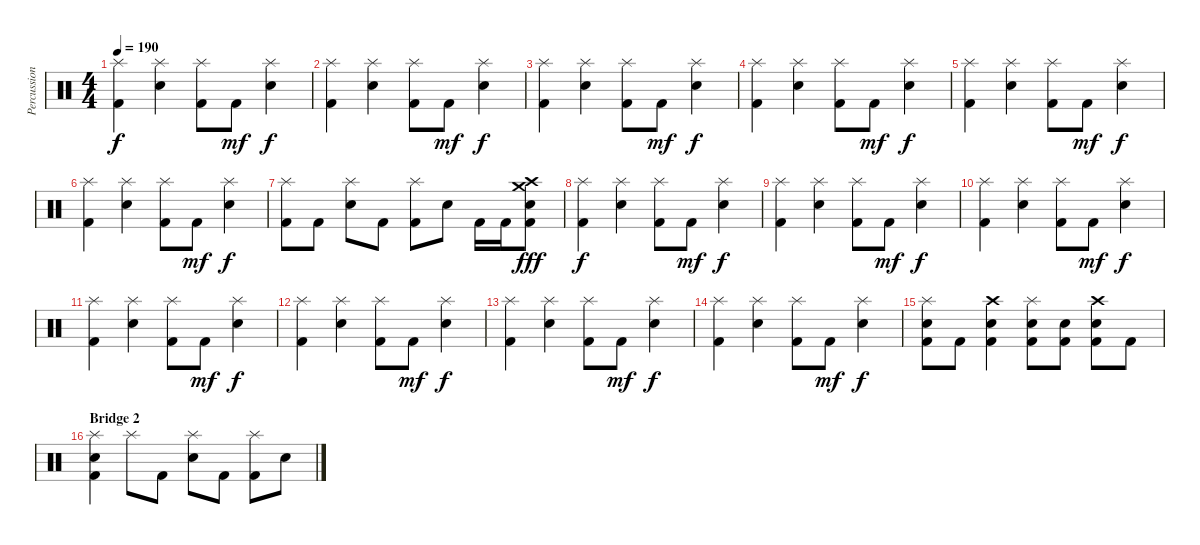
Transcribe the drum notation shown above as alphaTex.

\track ("Percussion" "Percussion") {instrument percussion}
\staff {score}
\articulation defaults
\ts (4 4)
\tempo 190
\clef neutral
\ks c
("Splash (hit)" "Kick (hit) 2").4{dy f} ("Splash (hit)" "Electric Snare (hit)").4 ("Splash (hit)" "Kick (hit) 2").8 "Kick (hit) 2".8{dy mf} ("Splash (hit)" "Electric Snare (hit)").4{dy f} |
("Splash (hit)" "Kick (hit) 2").4 ("Splash (hit)" "Electric Snare (hit)").4 ("Splash (hit)" "Kick (hit) 2").8 "Kick (hit) 2".8{dy mf} ("Splash (hit)" "Electric Snare (hit)").4{dy f} |
("Splash (hit)" "Kick (hit) 2").4 ("Splash (hit)" "Electric Snare (hit)").4 ("Splash (hit)" "Kick (hit) 2").8 "Kick (hit) 2".8{dy mf} ("Splash (hit)" "Electric Snare (hit)").4{dy f} |
("Splash (hit)" "Kick (hit) 2").4 ("Splash (hit)" "Electric Snare (hit)").4 ("Splash (hit)" "Kick (hit) 2").8 "Kick (hit) 2".8{dy mf} ("Splash (hit)" "Electric Snare (hit)").4{dy f} |
("Splash (hit)" "Kick (hit) 2").4 ("Splash (hit)" "Electric Snare (hit)").4 ("Splash (hit)" "Kick (hit) 2").8 "Kick (hit) 2".8{dy mf} ("Splash (hit)" "Electric Snare (hit)").4{dy f} |
("Splash (hit)" "Kick (hit) 2").4 ("Splash (hit)" "Electric Snare (hit)").4 ("Splash (hit)" "Kick (hit) 2").8 "Kick (hit) 2".8{dy mf} ("Splash (hit)" "Electric Snare (hit)").4{dy f} |
("Splash (hit)" "Kick (hit) 2").8 "Kick (hit) 2".8 ("Splash (hit)" "Electric Snare (hit)").8 "Kick (hit) 2".8 ("Splash (hit)" "Kick (hit) 2").8 "Electric Snare (hit)".8 "Kick (hit) 2".16 "Kick (hit) 2".16 ("Crash high (hit)" "Crash medium (hit)" "Electric Snare (hit)" "Kick (hit) 2").8{dy fff} |
("Splash (hit)" "Kick (hit) 2").4{dy f} ("Splash (hit)" "Electric Snare (hit)").4 ("Splash (hit)" "Kick (hit) 2").8 "Kick (hit) 2".8{dy mf} ("Splash (hit)" "Electric Snare (hit)").4{dy f} |
("Splash (hit)" "Kick (hit) 2").4 ("Splash (hit)" "Electric Snare (hit)").4 ("Splash (hit)" "Kick (hit) 2").8 "Kick (hit) 2".8{dy mf} ("Splash (hit)" "Electric Snare (hit)").4{dy f} |
("Splash (hit)" "Kick (hit) 2").4 ("Splash (hit)" "Electric Snare (hit)").4 ("Splash (hit)" "Kick (hit) 2").8 "Kick (hit) 2".8{dy mf} ("Splash (hit)" "Electric Snare (hit)").4{dy f} |
("Splash (hit)" "Kick (hit) 2").4 ("Splash (hit)" "Electric Snare (hit)").4 ("Splash (hit)" "Kick (hit) 2").8 "Kick (hit) 2".8{dy mf} ("Splash (hit)" "Electric Snare (hit)").4{dy f} |
("Splash (hit)" "Kick (hit) 2").4 ("Splash (hit)" "Electric Snare (hit)").4 ("Splash (hit)" "Kick (hit) 2").8 "Kick (hit) 2".8{dy mf} ("Splash (hit)" "Electric Snare (hit)").4{dy f} |
("Splash (hit)" "Kick (hit) 2").4 ("Splash (hit)" "Electric Snare (hit)").4 ("Splash (hit)" "Kick (hit) 2").8 "Kick (hit) 2".8{dy mf} ("Splash (hit)" "Electric Snare (hit)").4{dy f} |
("Splash (hit)" "Kick (hit) 2").4 ("Splash (hit)" "Electric Snare (hit)").4 ("Splash (hit)" "Kick (hit) 2").8 "Kick (hit) 2".8{dy mf} ("Splash (hit)" "Electric Snare (hit)").4{dy f} |
("Splash (hit)" "Electric Snare (hit)" "Kick (hit) 2").8 "Kick (hit) 2".8 ("Crash high (hit)" "Electric Snare (hit)" "Kick (hit) 2").4 ("Splash (hit)" "Electric Snare (hit)" "Kick (hit) 2").8 ("Electric Snare (hit)" "Kick (hit) 2").8 ("Crash high (hit)" "Electric Snare (hit)" "Kick (hit) 2").8 "Kick (hit) 2".8 |
\section ("" "Bridge 2")
("Splash (hit)" "Electric Snare (hit)" "Kick (hit) 2").4 "Splash (hit)".8 "Kick (hit) 2".8 ("Splash (hit)" "Electric Snare (hit)").8 "Kick (hit) 2".8 ("Splash (hit)" "Kick (hit) 2").8 "Electric Snare (hit)".8
